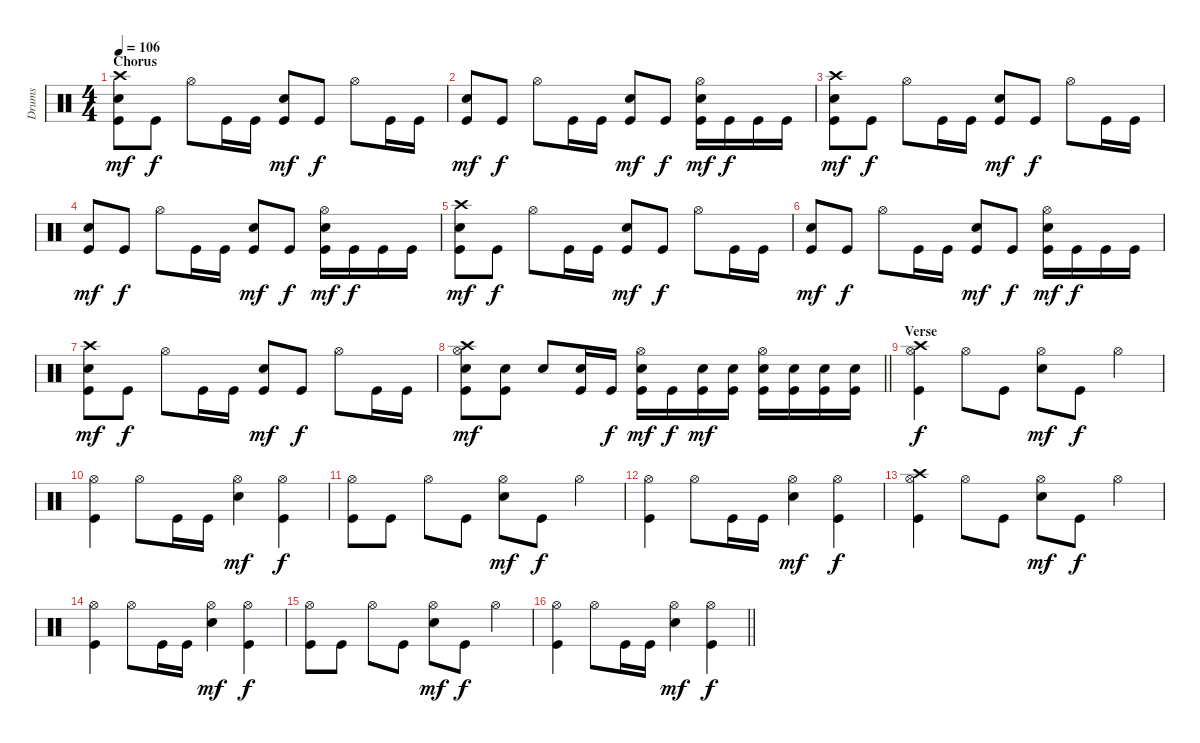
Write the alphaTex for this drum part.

\track ("Drums" "Drums") {instrument percussion}
\staff {score}
\articulation defaults
\ts (4 4)
\section ("" "Chorus")
\tempo 106
\clef neutral
\ks c
("Crash high (hit)" "Electric Snare (hit)" "Kick (hit)").8{dy mf} "Kick (hit)".8{dy f} "Hi-Hat (open)".8 "Kick (hit)".16 "Kick (hit)".16 ("Electric Snare (hit)" "Kick (hit)").8{dy mf} "Kick (hit)".8{dy f} "Hi-Hat (open)".8 "Kick (hit)".16 "Kick (hit)".16 |
("Electric Snare (hit)" "Kick (hit)").8{dy mf} "Kick (hit)".8{dy f} "Hi-Hat (open)".8 "Kick (hit)".16 "Kick (hit)".16 ("Electric Snare (hit)" "Kick (hit)").8{dy mf} "Kick (hit)".8{dy f} ("Hi-Hat (open)" "Electric Snare (hit)" "Kick (hit)").16{dy mf} "Kick (hit)".16{dy f} "Kick (hit)".16 "Kick (hit)".16 |
("Crash high (hit)" "Electric Snare (hit)" "Kick (hit)").8{dy mf} "Kick (hit)".8{dy f} "Hi-Hat (open)".8 "Kick (hit)".16 "Kick (hit)".16 ("Electric Snare (hit)" "Kick (hit)").8{dy mf} "Kick (hit)".8{dy f} "Hi-Hat (open)".8 "Kick (hit)".16 "Kick (hit)".16 |
("Electric Snare (hit)" "Kick (hit)").8{dy mf} "Kick (hit)".8{dy f} "Hi-Hat (open)".8 "Kick (hit)".16 "Kick (hit)".16 ("Electric Snare (hit)" "Kick (hit)").8{dy mf} "Kick (hit)".8{dy f} ("Hi-Hat (open)" "Electric Snare (hit)" "Kick (hit)").16{dy mf} "Kick (hit)".16{dy f} "Kick (hit)".16 "Kick (hit)".16 |
("Crash high (hit)" "Electric Snare (hit)" "Kick (hit)").8{dy mf} "Kick (hit)".8{dy f} "Hi-Hat (open)".8 "Kick (hit)".16 "Kick (hit)".16 ("Electric Snare (hit)" "Kick (hit)").8{dy mf} "Kick (hit)".8{dy f} "Hi-Hat (open)".8 "Kick (hit)".16 "Kick (hit)".16 |
("Electric Snare (hit)" "Kick (hit)").8{dy mf} "Kick (hit)".8{dy f} "Hi-Hat (open)".8 "Kick (hit)".16 "Kick (hit)".16 ("Electric Snare (hit)" "Kick (hit)").8{dy mf} "Kick (hit)".8{dy f} ("Hi-Hat (open)" "Electric Snare (hit)" "Kick (hit)").16{dy mf} "Kick (hit)".16{dy f} "Kick (hit)".16 "Kick (hit)".16 |
("Crash high (hit)" "Electric Snare (hit)" "Kick (hit)").8{dy mf} "Kick (hit)".8{dy f} "Hi-Hat (open)".8 "Kick (hit)".16 "Kick (hit)".16 ("Electric Snare (hit)" "Kick (hit)").8{dy mf} "Kick (hit)".8{dy f} "Hi-Hat (open)".8 "Kick (hit)".16 "Kick (hit)".16 |
\barLineRight lightlight
("Crash high (hit)" "Hi-Hat (open)" "Electric Snare (hit)" "Kick (hit)").8{dy mf} ("Electric Snare (hit)" "Kick (hit)").8 "Electric Snare (hit)".8 ("Electric Snare (hit)" "Kick (hit)").16 "Kick (hit)".16{dy f} ("Hi-Hat (open)" "Electric Snare (hit)" "Kick (hit)").16{dy mf} "Kick (hit)".16{dy f} ("Electric Snare (hit)" "Kick (hit)").16{dy mf} ("Electric Snare (hit)" "Kick (hit)").16 ("Hi-Hat (open)" "Electric Snare (hit)" "Kick (hit)").16 ("Electric Snare (hit)" "Kick (hit)").16 ("Electric Snare (hit)" "Kick (hit)").16 ("Electric Snare (hit)" "Kick (hit)").16 |
\section ("" "Verse")
("Crash high (hit)" "Hi-Hat (open)" "Kick (hit)").4{dy f} "Hi-Hat (open)".8 "Kick (hit)".8 ("Hi-Hat (open)" "Electric Snare (hit)").8{dy mf} "Kick (hit)".8{dy f} "Hi-Hat (open)".4 |
("Hi-Hat (open)" "Kick (hit)").4 "Hi-Hat (open)".8 "Kick (hit)".16 "Kick (hit)".16 ("Hi-Hat (open)" "Electric Snare (hit)").4{dy mf} ("Hi-Hat (open)" "Kick (hit)").4{dy f} |
("Hi-Hat (open)" "Kick (hit)").8 "Kick (hit)".8 "Hi-Hat (open)".8 "Kick (hit)".8 ("Hi-Hat (open)" "Electric Snare (hit)").8{dy mf} "Kick (hit)".8{dy f} "Hi-Hat (open)".4 |
("Hi-Hat (open)" "Kick (hit)").4 "Hi-Hat (open)".8 "Kick (hit)".16 "Kick (hit)".16 ("Hi-Hat (open)" "Electric Snare (hit)").4{dy mf} ("Hi-Hat (open)" "Kick (hit)").4{dy f} |
("Crash high (hit)" "Hi-Hat (open)" "Kick (hit)").4 "Hi-Hat (open)".8 "Kick (hit)".8 ("Hi-Hat (open)" "Electric Snare (hit)").8{dy mf} "Kick (hit)".8{dy f} "Hi-Hat (open)".4 |
("Hi-Hat (open)" "Kick (hit)").4 "Hi-Hat (open)".8 "Kick (hit)".16 "Kick (hit)".16 ("Hi-Hat (open)" "Electric Snare (hit)").4{dy mf} ("Hi-Hat (open)" "Kick (hit)").4{dy f} |
("Hi-Hat (open)" "Kick (hit)").8 "Kick (hit)".8 "Hi-Hat (open)".8 "Kick (hit)".8 ("Hi-Hat (open)" "Electric Snare (hit)").8{dy mf} "Kick (hit)".8{dy f} "Hi-Hat (open)".4 |
\barLineRight lightlight
("Hi-Hat (open)" "Kick (hit)").4 "Hi-Hat (open)".8 "Kick (hit)".16 "Kick (hit)".16 ("Hi-Hat (open)" "Electric Snare (hit)").4{dy mf} ("Hi-Hat (open)" "Kick (hit)").4{dy f}
